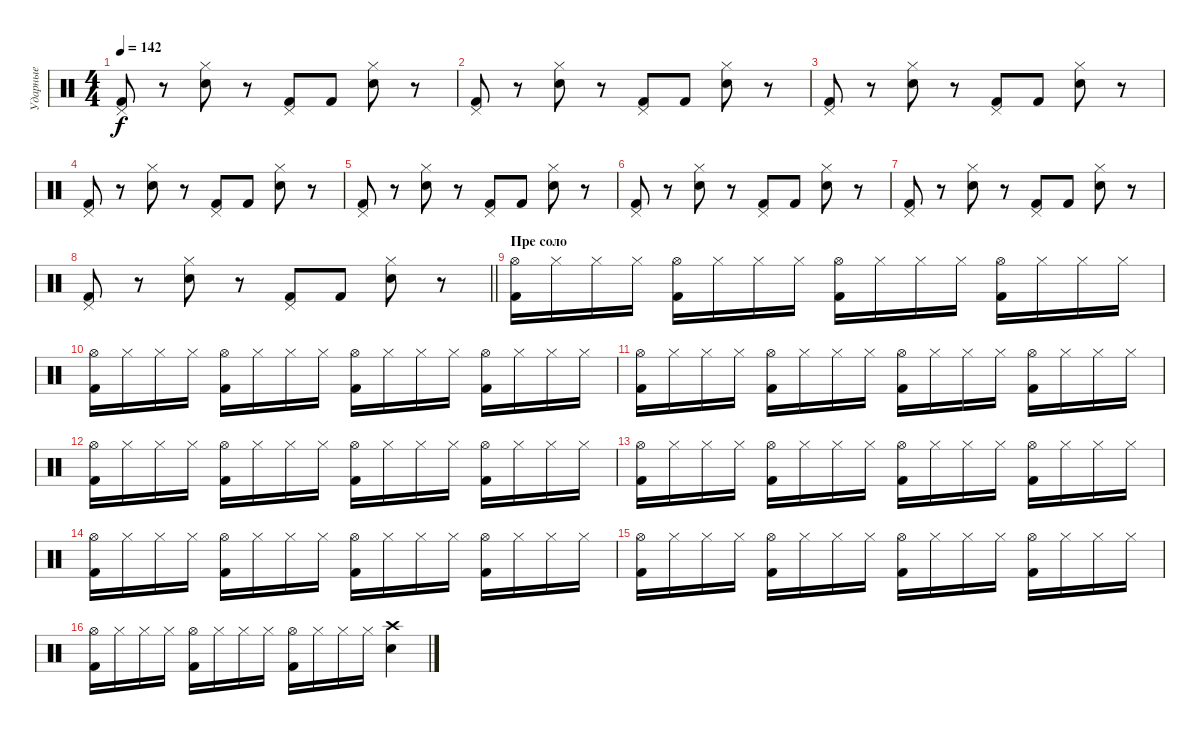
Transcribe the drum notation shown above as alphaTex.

\track ("Ударные" "Ударные") {instrument percussion}
\staff {score}
\articulation defaults
\ts (4 4)
\tempo 142
\clef neutral
\ks c
("Pedal Hi-Hat (hit)" "Kick (hit) 2").8{dy f} r.8 ("Hi-Hat (closed)" "Electric Snare (hit)").8 r.8 ("Pedal Hi-Hat (hit)" "Kick (hit) 2").8 "Kick (hit) 2".8 ("Hi-Hat (closed)" "Electric Snare (hit)").8 r.8 |
("Pedal Hi-Hat (hit)" "Kick (hit) 2").8 r.8 ("Hi-Hat (closed)" "Electric Snare (hit)").8 r.8 ("Pedal Hi-Hat (hit)" "Kick (hit) 2").8 "Kick (hit) 2".8 ("Hi-Hat (closed)" "Electric Snare (hit)").8 r.8 |
("Pedal Hi-Hat (hit)" "Kick (hit) 2").8 r.8 ("Hi-Hat (closed)" "Electric Snare (hit)").8 r.8 ("Pedal Hi-Hat (hit)" "Kick (hit) 2").8 "Kick (hit) 2".8 ("Hi-Hat (closed)" "Electric Snare (hit)").8 r.8 |
("Pedal Hi-Hat (hit)" "Kick (hit) 2").8 r.8 ("Hi-Hat (closed)" "Electric Snare (hit)").8 r.8 ("Pedal Hi-Hat (hit)" "Kick (hit) 2").8 "Kick (hit) 2".8 ("Hi-Hat (closed)" "Electric Snare (hit)").8 r.8 |
("Pedal Hi-Hat (hit)" "Kick (hit) 2").8 r.8 ("Hi-Hat (closed)" "Electric Snare (hit)").8 r.8 ("Pedal Hi-Hat (hit)" "Kick (hit) 2").8 "Kick (hit) 2".8 ("Hi-Hat (closed)" "Electric Snare (hit)").8 r.8 |
("Pedal Hi-Hat (hit)" "Kick (hit) 2").8 r.8 ("Hi-Hat (closed)" "Electric Snare (hit)").8 r.8 ("Pedal Hi-Hat (hit)" "Kick (hit) 2").8 "Kick (hit) 2".8 ("Hi-Hat (closed)" "Electric Snare (hit)").8 r.8 |
("Pedal Hi-Hat (hit)" "Kick (hit) 2").8 r.8 ("Hi-Hat (closed)" "Electric Snare (hit)").8 r.8 ("Pedal Hi-Hat (hit)" "Kick (hit) 2").8 "Kick (hit) 2".8 ("Hi-Hat (closed)" "Electric Snare (hit)").8 r.8 |
\barLineRight lightlight
("Pedal Hi-Hat (hit)" "Kick (hit) 2").8 r.8 ("Hi-Hat (closed)" "Electric Snare (hit)").8 r.8 ("Pedal Hi-Hat (hit)" "Kick (hit) 2").8 "Kick (hit) 2".8 ("Hi-Hat (closed)" "Electric Snare (hit)").8 r.8 |
\section ("" "Пре соло")
("Hi-Hat (open)" "Kick (hit) 2").16 "Hi-Hat (closed)".16 "Hi-Hat (closed)".16 "Hi-Hat (closed)".16 ("Hi-Hat (open)" "Kick (hit) 2").16 "Hi-Hat (closed)".16 "Hi-Hat (closed)".16 "Hi-Hat (closed)".16 ("Hi-Hat (open)" "Kick (hit) 2").16 "Hi-Hat (closed)".16 "Hi-Hat (closed)".16 "Hi-Hat (closed)".16 ("Hi-Hat (open)" "Kick (hit) 2").16 "Hi-Hat (closed)".16 "Hi-Hat (closed)".16 "Hi-Hat (closed)".16 |
("Hi-Hat (open)" "Kick (hit) 2").16 "Hi-Hat (closed)".16 "Hi-Hat (closed)".16 "Hi-Hat (closed)".16 ("Hi-Hat (open)" "Kick (hit) 2").16 "Hi-Hat (closed)".16 "Hi-Hat (closed)".16 "Hi-Hat (closed)".16 ("Hi-Hat (open)" "Kick (hit) 2").16 "Hi-Hat (closed)".16 "Hi-Hat (closed)".16 "Hi-Hat (closed)".16 ("Hi-Hat (open)" "Kick (hit) 2").16 "Hi-Hat (closed)".16 "Hi-Hat (closed)".16 "Hi-Hat (closed)".16 |
("Hi-Hat (open)" "Kick (hit) 2").16 "Hi-Hat (closed)".16 "Hi-Hat (closed)".16 "Hi-Hat (closed)".16 ("Hi-Hat (open)" "Kick (hit) 2").16 "Hi-Hat (closed)".16 "Hi-Hat (closed)".16 "Hi-Hat (closed)".16 ("Hi-Hat (open)" "Kick (hit) 2").16 "Hi-Hat (closed)".16 "Hi-Hat (closed)".16 "Hi-Hat (closed)".16 ("Hi-Hat (open)" "Kick (hit) 2").16 "Hi-Hat (closed)".16 "Hi-Hat (closed)".16 "Hi-Hat (closed)".16 |
("Hi-Hat (open)" "Kick (hit) 2").16 "Hi-Hat (closed)".16 "Hi-Hat (closed)".16 "Hi-Hat (closed)".16 ("Hi-Hat (open)" "Kick (hit) 2").16 "Hi-Hat (closed)".16 "Hi-Hat (closed)".16 "Hi-Hat (closed)".16 ("Hi-Hat (open)" "Kick (hit) 2").16 "Hi-Hat (closed)".16 "Hi-Hat (closed)".16 "Hi-Hat (closed)".16 ("Hi-Hat (open)" "Kick (hit) 2").16 "Hi-Hat (closed)".16 "Hi-Hat (closed)".16 "Hi-Hat (closed)".16 |
("Hi-Hat (open)" "Kick (hit) 2").16 "Hi-Hat (closed)".16 "Hi-Hat (closed)".16 "Hi-Hat (closed)".16 ("Hi-Hat (open)" "Kick (hit) 2").16 "Hi-Hat (closed)".16 "Hi-Hat (closed)".16 "Hi-Hat (closed)".16 ("Hi-Hat (open)" "Kick (hit) 2").16 "Hi-Hat (closed)".16 "Hi-Hat (closed)".16 "Hi-Hat (closed)".16 ("Hi-Hat (open)" "Kick (hit) 2").16 "Hi-Hat (closed)".16 "Hi-Hat (closed)".16 "Hi-Hat (closed)".16 |
("Hi-Hat (open)" "Kick (hit) 2").16 "Hi-Hat (closed)".16 "Hi-Hat (closed)".16 "Hi-Hat (closed)".16 ("Hi-Hat (open)" "Kick (hit) 2").16 "Hi-Hat (closed)".16 "Hi-Hat (closed)".16 "Hi-Hat (closed)".16 ("Hi-Hat (open)" "Kick (hit) 2").16 "Hi-Hat (closed)".16 "Hi-Hat (closed)".16 "Hi-Hat (closed)".16 ("Hi-Hat (open)" "Kick (hit) 2").16 "Hi-Hat (closed)".16 "Hi-Hat (closed)".16 "Hi-Hat (closed)".16 |
("Hi-Hat (open)" "Kick (hit) 2").16 "Hi-Hat (closed)".16 "Hi-Hat (closed)".16 "Hi-Hat (closed)".16 ("Hi-Hat (open)" "Kick (hit) 2").16 "Hi-Hat (closed)".16 "Hi-Hat (closed)".16 "Hi-Hat (closed)".16 ("Hi-Hat (open)" "Kick (hit) 2").16 "Hi-Hat (closed)".16 "Hi-Hat (closed)".16 "Hi-Hat (closed)".16 ("Hi-Hat (open)" "Kick (hit) 2").16 "Hi-Hat (closed)".16 "Hi-Hat (closed)".16 "Hi-Hat (closed)".16 |
("Hi-Hat (open)" "Kick (hit) 2").16 "Hi-Hat (closed)".16 "Hi-Hat (closed)".16 "Hi-Hat (closed)".16 ("Hi-Hat (open)" "Kick (hit) 2").16 "Hi-Hat (closed)".16 "Hi-Hat (closed)".16 "Hi-Hat (closed)".16 ("Hi-Hat (open)" "Kick (hit) 2").16 "Hi-Hat (closed)".16 "Hi-Hat (closed)".16 "Hi-Hat (closed)".16 ("Crash high (hit)" "Electric Snare (hit)").4
